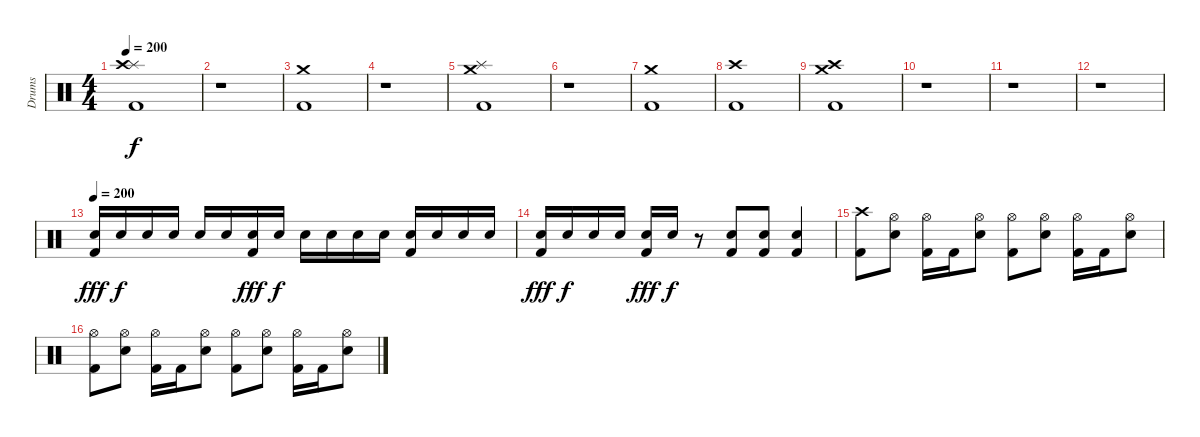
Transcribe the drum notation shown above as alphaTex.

\track ("Drums" "Drums") {instrument percussion}
\staff {score}
\articulation defaults
\ts (4 4)
\section ("" "")
\tempo 200
\clef neutral
\ks c
("Kick (hit) 2" "Splash (hit)" "Crash high (hit)").1{dy f} |
r.1 |
("Kick (hit) 2" "Crash medium (hit)").1 |
r.1 |
("Kick (hit) 2" "Splash (hit)" "Crash medium (hit)").1 |
r.1 |
("Kick (hit) 2" "Crash medium (hit)").1 |
("Kick (hit) 2" "Crash high (hit)").1 |
("Kick (hit) 2" "Crash high (hit)" "Crash medium (hit)").1 |
r.1 |
r.1 |
r.1 |
\tempo 200
("Kick (hit) 2" "Snare (hit) 2").16{dy fff} "Snare (hit) 2".16{dy f} "Snare (hit) 2".16 "Snare (hit) 2".16 "Snare (hit) 2".16 "Snare (hit) 2".16 ("Kick (hit) 2" "Snare (hit) 2").16{dy fff} "Snare (hit) 2".16{dy f} "Snare (hit) 2".16 "Snare (hit) 2".16 "Snare (hit) 2".16 "Snare (hit) 2".16 ("Kick (hit) 2" "Snare (hit) 2").16 "Snare (hit) 2".16 "Snare (hit) 2".16 "Snare (hit) 2".16 |
("Kick (hit) 2" "Snare (hit) 2").16{dy fff} "Snare (hit) 2".16{dy f} "Snare (hit) 2".16 "Snare (hit) 2".16 ("Kick (hit) 2" "Snare (hit) 2").16{dy fff} "Snare (hit) 2".16{dy f} r.8 ("Kick (hit) 2" "Snare (hit) 2").8 ("Kick (hit) 2" "Snare (hit) 2").8 ("Kick (hit) 2" "Snare (hit) 2").4 |
\section ("" "")
("Kick (hit) 2" "Crash high (hit)").8 ("Snare (hit) 2" "Hi-Hat (open)").8 ("Kick (hit) 2" "Hi-Hat (open)").16 "Kick (hit) 2".16 ("Snare (hit) 2" "Hi-Hat (open)").8 ("Kick (hit) 2" "Hi-Hat (open)").8 ("Snare (hit) 2" "Hi-Hat (open)").8 ("Kick (hit) 2" "Hi-Hat (open)").16 "Kick (hit) 2".16 ("Snare (hit) 2" "Hi-Hat (open)").8 |
("Kick (hit) 2" "Hi-Hat (open)").8 ("Snare (hit) 2" "Hi-Hat (open)").8 ("Kick (hit) 2" "Hi-Hat (open)").16 "Kick (hit) 2".16 ("Snare (hit) 2" "Hi-Hat (open)").8 ("Kick (hit) 2" "Hi-Hat (open)").8 ("Snare (hit) 2" "Hi-Hat (open)").8 ("Kick (hit) 2" "Hi-Hat (open)").16 "Kick (hit) 2".16 ("Snare (hit) 2" "Hi-Hat (open)").8
